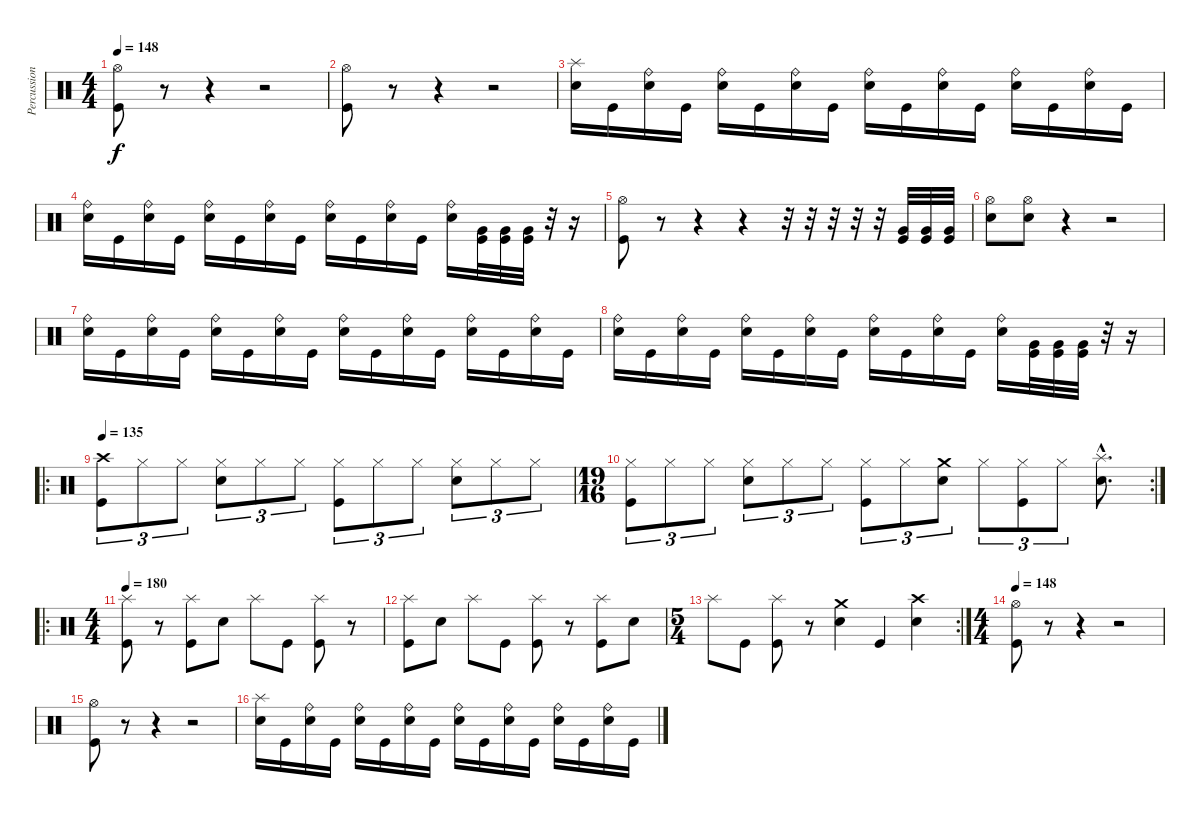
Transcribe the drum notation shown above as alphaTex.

\track ("Percussions" "Percussion") {instrument percussion}
\staff {score}
\articulation defaults
\ts (4 4)
\tempo 148
\clef neutral
\ks c
("Kick (hit)" "Hi-Hat (open)").8{dy f} r.8 r.4 r.2 |
("Kick (hit)" "Hi-Hat (open)").8 r.8 r.4 r.2 |
("Electric Snare (hit)" "Splash (hit)").16 "Kick (hit)".16 ("Electric Snare (hit)" "Ride (bell)").16 "Kick (hit)".16 ("Electric Snare (hit)" "Ride (bell)").16 "Kick (hit)".16 ("Electric Snare (hit)" "Ride (bell)").16 "Kick (hit)".16 ("Electric Snare (hit)" "Ride (bell)").16 "Kick (hit)".16 ("Electric Snare (hit)" "Ride (bell)").16 "Kick (hit)".16 ("Electric Snare (hit)" "Ride (bell)").16 "Kick (hit)".16 ("Electric Snare (hit)" "Ride (bell)").16 "Kick (hit)".16 |
("Electric Snare (hit)" "Ride (bell)").16 "Kick (hit)".16 ("Electric Snare (hit)" "Ride (bell)").16 "Kick (hit)".16 ("Electric Snare (hit)" "Ride (bell)").16 "Kick (hit)".16 ("Electric Snare (hit)" "Ride (bell)").16 "Kick (hit)".16 ("Electric Snare (hit)" "Ride (bell)").16 "Kick (hit)".16 ("Electric Snare (hit)" "Ride (bell)").16 "Kick (hit)".16 ("Electric Snare (hit)" "Ride (bell)").16 ("Kick (hit)" "Very Low Tom (hit)").32 ("Kick (hit)" "Very Low Tom (hit)").32 ("Kick (hit)" "Very Low Tom (hit)").32 r.32 r.16 |
("Kick (hit)" "Hi-Hat (open)").8 r.8 r.4 r.4 r.32 r.32 r.32 r.32 r.32 ("Kick (hit)" "Very Low Tom (hit)").32 ("Kick (hit)" "Very Low Tom (hit)").32 ("Kick (hit)" "Very Low Tom (hit)").32 |
("Electric Snare (hit)" "Hi-Hat (open)").8 ("Electric Snare (hit)" "Hi-Hat (open)").8 r.4 r.2 |
("Electric Snare (hit)" "Ride (bell)").16 "Kick (hit)".16 ("Electric Snare (hit)" "Ride (bell)").16 "Kick (hit)".16 ("Electric Snare (hit)" "Ride (bell)").16 "Kick (hit)".16 ("Electric Snare (hit)" "Ride (bell)").16 "Kick (hit)".16 ("Electric Snare (hit)" "Ride (bell)").16 "Kick (hit)".16 ("Electric Snare (hit)" "Ride (bell)").16 "Kick (hit)".16 ("Electric Snare (hit)" "Ride (bell)").16 "Kick (hit)".16 ("Electric Snare (hit)" "Ride (bell)").16 "Kick (hit)".16 |
("Electric Snare (hit)" "Ride (bell)").16 "Kick (hit)".16 ("Electric Snare (hit)" "Ride (bell)").16 "Kick (hit)".16 ("Electric Snare (hit)" "Ride (bell)").16 "Kick (hit)".16 ("Electric Snare (hit)" "Ride (bell)").16 "Kick (hit)".16 ("Electric Snare (hit)" "Ride (bell)").16 "Kick (hit)".16 ("Electric Snare (hit)" "Ride (bell)").16 "Kick (hit)".16 ("Electric Snare (hit)" "Ride (bell)").16 ("Kick (hit)" "Very Low Tom (hit)").32 ("Kick (hit)" "Very Low Tom (hit)").32 ("Kick (hit)" "Very Low Tom (hit)").32 r.32 r.16 |
\ro
\tempo 135
("Kick (hit)" "Crash high (hit)").8{tu (3 2)} "Hi-Hat (closed)".8{tu (3 2)} "Hi-Hat (closed)".8{tu (3 2)} ("Electric Snare (hit)" "Hi-Hat (closed)").8{tu (3 2)} "Hi-Hat (closed)".8{tu (3 2)} "Hi-Hat (closed)".8{tu (3 2)} ("Kick (hit)" "Hi-Hat (closed)").8{tu (3 2)} "Hi-Hat (closed)".8{tu (3 2)} "Hi-Hat (closed)".8{tu (3 2)} ("Electric Snare (hit)" "Hi-Hat (closed)").8{tu (3 2)} "Hi-Hat (closed)".8{tu (3 2)} "Hi-Hat (closed)".8{tu (3 2)} |
\rc 2
\ts (19 16)
("Kick (hit)" "Hi-Hat (closed)").8{tu (3 2)} "Hi-Hat (closed)".8{tu (3 2)} "Hi-Hat (closed)".8{tu (3 2)} ("Electric Snare (hit)" "Hi-Hat (closed)").8{tu (3 2)} "Hi-Hat (closed)".8{tu (3 2)} "Hi-Hat (closed)".8{tu (3 2)} ("Kick (hit)" "Hi-Hat (closed)").8{tu (3 2)} "Hi-Hat (closed)".8{tu (3 2)} ("Electric Snare (hit)" "Crash medium (hit)").8{tu (3 2)} "Hi-Hat (closed)".8{tu (3 2)} ("Kick (hit)" "Hi-Hat (closed)").8{tu (3 2)} "Hi-Hat (closed)".8{tu (3 2)} ("Electric Snare (hit)"{hac} "Splash (hit)"{hac}).8{d} |
\ro
\ts (4 4)
\tempo 180
("Kick (hit)" "Splash (hit)").8 r.8 ("Kick (hit)" "Splash (hit)").8 "Electric Snare (hit)".8 "Splash (hit)".8 "Kick (hit)".8 ("Kick (hit)" "Splash (hit)").8 r.8 |
("Kick (hit)" "Splash (hit)").8 "Electric Snare (hit)".8 "Splash (hit)".8 "Kick (hit)".8 ("Kick (hit)" "Splash (hit)").8 r.8 ("Kick (hit)" "Splash (hit)").8 "Electric Snare (hit)".8 |
\rc 2
\ts (5 4)
"Splash (hit)".8 "Kick (hit)".8 ("Kick (hit)" "Splash (hit)").8 r.8 ("Electric Snare (hit)" "Crash medium (hit)").4 "Kick (hit)".4 ("Electric Snare (hit)" "Crash high (hit)").4 |
\ts (4 4)
\tempo 148
("Kick (hit)" "Hi-Hat (open)").8 r.8 r.4 r.2 |
("Kick (hit)" "Hi-Hat (open)").8 r.8 r.4 r.2 |
("Electric Snare (hit)" "Splash (hit)").16 "Kick (hit)".16 ("Electric Snare (hit)" "Ride (bell)").16 "Kick (hit)".16 ("Electric Snare (hit)" "Ride (bell)").16 "Kick (hit)".16 ("Electric Snare (hit)" "Ride (bell)").16 "Kick (hit)".16 ("Electric Snare (hit)" "Ride (bell)").16 "Kick (hit)".16 ("Electric Snare (hit)" "Ride (bell)").16 "Kick (hit)".16 ("Electric Snare (hit)" "Ride (bell)").16 "Kick (hit)".16 ("Electric Snare (hit)" "Ride (bell)").16 "Kick (hit)".16
